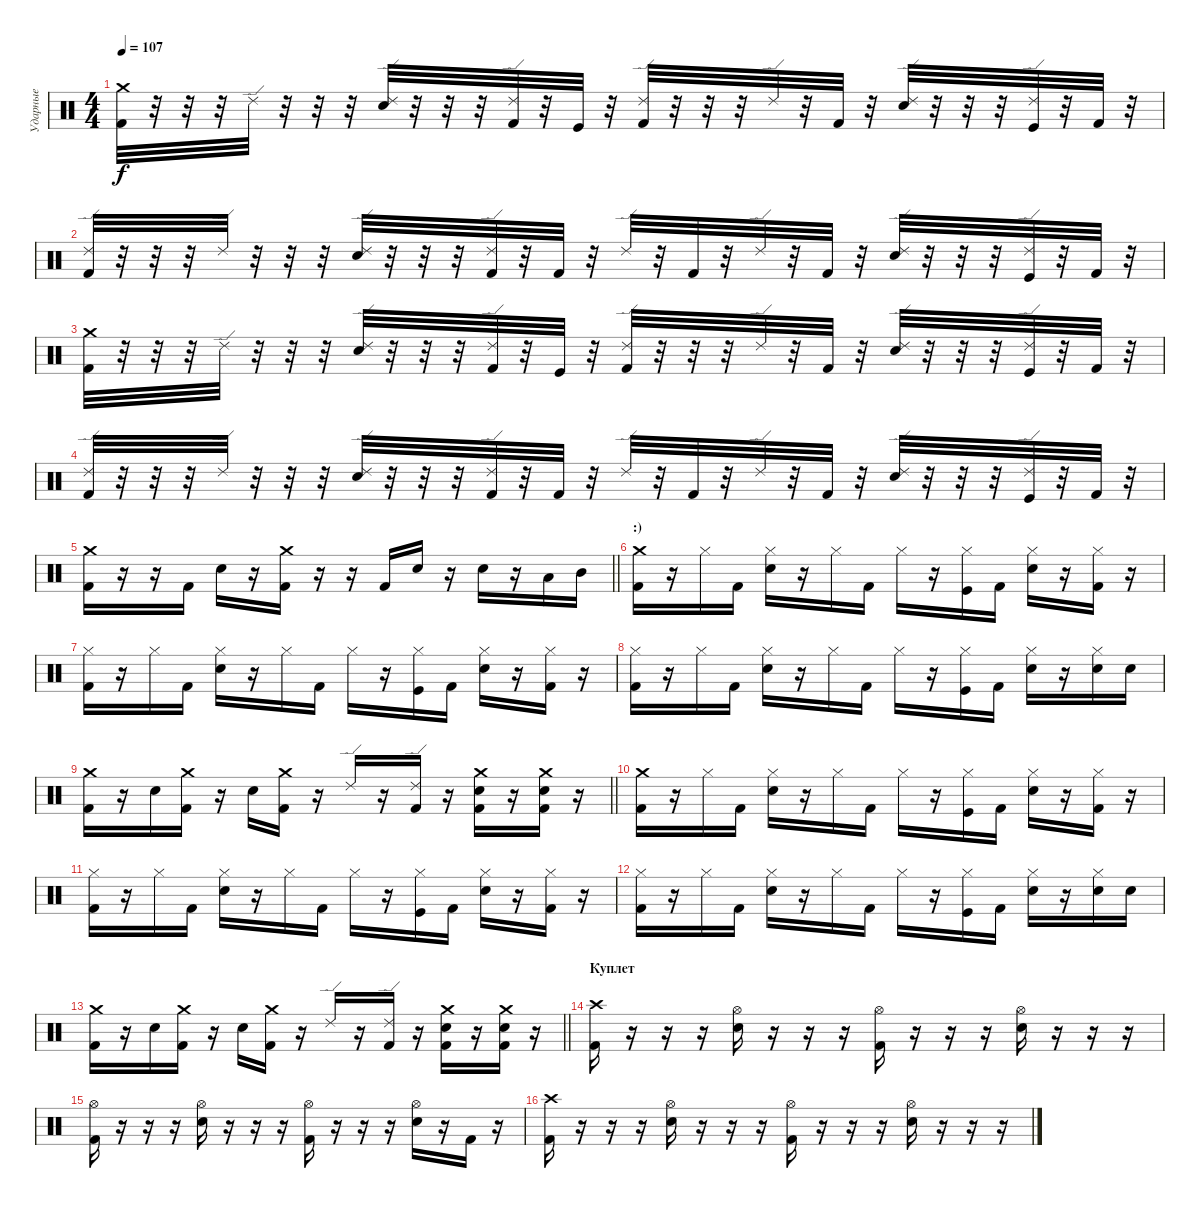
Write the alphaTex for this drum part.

\track ("Ударные" "Ударные") {instrument percussion}
\staff {score}
\articulation defaults
\ts (4 4)
\tempo 107
\clef neutral
\ks c
("Crash medium (hit)" "Kick (hit) 2").32{dy f} r.32 r.32 r.32 "Ride (edge) 2".32 r.32 r.32 r.32 ("Ride (edge) 2" "Electric Snare (hit)").32 r.32 r.32 r.32 ("Ride (edge) 2" "Kick (hit) 2").32 r.32 "Kick (hit)".32 r.32 ("Ride (edge) 2" "Kick (hit) 2").32 r.32 r.32 r.32 "Ride (edge) 2".32 r.32 "Kick (hit) 2".32 r.32 ("Ride (edge) 2" "Electric Snare (hit)").32 r.32 r.32 r.32 ("Ride (edge) 2" "Kick (hit)").32 r.32 "Kick (hit) 2".32 r.32 |
("Ride (edge) 2" "Kick (hit) 2").32 r.32 r.32 r.32 "Ride (edge) 2".32 r.32 r.32 r.32 ("Ride (edge) 2" "Electric Snare (hit)").32 r.32 r.32 r.32 ("Ride (edge) 2" "Kick (hit) 2").32 r.32 "Kick (hit) 2".32 r.32 "Ride (edge) 2".32 r.32 "Kick (hit) 2".32 r.32 "Ride (edge) 2".32 r.32 "Kick (hit) 2".32 r.32 ("Ride (edge) 2" "Electric Snare (hit)").32 r.32 r.32 r.32 ("Ride (edge) 2" "Kick (hit)").32 r.32 "Kick (hit) 2".32 r.32 |
("Crash medium (hit)" "Kick (hit) 2").32 r.32 r.32 r.32 "Ride (edge) 2".32 r.32 r.32 r.32 ("Ride (edge) 2" "Electric Snare (hit)").32 r.32 r.32 r.32 ("Ride (edge) 2" "Kick (hit) 2").32 r.32 "Kick (hit)".32 r.32 ("Ride (edge) 2" "Kick (hit) 2").32 r.32 r.32 r.32 "Ride (edge) 2".32 r.32 "Kick (hit) 2".32 r.32 ("Ride (edge) 2" "Electric Snare (hit)").32 r.32 r.32 r.32 ("Ride (edge) 2" "Kick (hit)").32 r.32 "Kick (hit) 2".32 r.32 |
("Ride (edge) 2" "Kick (hit) 2").32 r.32 r.32 r.32 "Ride (edge) 2".32 r.32 r.32 r.32 ("Ride (edge) 2" "Electric Snare (hit)").32 r.32 r.32 r.32 ("Ride (edge) 2" "Kick (hit) 2").32 r.32 "Kick (hit) 2".32 r.32 "Ride (edge) 2".32 r.32 "Kick (hit) 2".32 r.32 "Ride (edge) 2".32 r.32 "Kick (hit) 2".32 r.32 ("Ride (edge) 2" "Electric Snare (hit)").32 r.32 r.32 r.32 ("Ride (edge) 2" "Kick (hit)").32 r.32 "Kick (hit) 2".32 r.32 |
\barLineRight lightlight
("Crash medium (hit)" "Kick (hit) 2").16 r.16 r.16 "Kick (hit) 2".16 "Electric Snare (hit)".16 r.16 ("Crash medium (hit)" "Kick (hit) 2").16 r.16 r.16 "Kick (hit) 2".16 "Electric Snare (hit)".16 r.16 "Electric Snare (hit)".16 r.16 "Low Tom (hit)".16 "Mid Tom (hit)".16 |
\section ("" ":)")
("Crash medium (hit)" "Kick (hit) 2").16 r.16 "Hi-Hat (closed)".16 "Kick (hit) 2".16 ("Hi-Hat (closed)" "Electric Snare (hit)").16 r.16 "Hi-Hat (closed)".16 "Kick (hit) 2".16 "Hi-Hat (closed)".16 r.16 ("Hi-Hat (closed)" "Kick (hit)").16 "Kick (hit) 2".16 ("Hi-Hat (closed)" "Electric Snare (hit)").16 r.16 ("Hi-Hat (closed)" "Kick (hit) 2").16 r.16 |
("Hi-Hat (closed)" "Kick (hit) 2").16 r.16 "Hi-Hat (closed)".16 "Kick (hit) 2".16 ("Hi-Hat (closed)" "Electric Snare (hit)").16 r.16 "Hi-Hat (closed)".16 "Kick (hit) 2".16 "Hi-Hat (closed)".16 r.16 ("Hi-Hat (closed)" "Kick (hit)").16 "Kick (hit) 2".16 ("Hi-Hat (closed)" "Electric Snare (hit)").16 r.16 ("Hi-Hat (closed)" "Kick (hit) 2").16 r.16 |
("Hi-Hat (closed)" "Kick (hit) 2").16 r.16 "Hi-Hat (closed)".16 "Kick (hit) 2".16 ("Hi-Hat (closed)" "Electric Snare (hit)").16 r.16 "Hi-Hat (closed)".16 "Kick (hit) 2".16 "Hi-Hat (closed)".16 r.16 ("Hi-Hat (closed)" "Kick (hit)").16 "Kick (hit) 2".16 ("Hi-Hat (closed)" "Electric Snare (hit)").16 r.16 ("Hi-Hat (closed)" "Electric Snare (hit)").16 "Electric Snare (hit)".16 |
\barLineRight lightlight
("Crash medium (hit)" "Kick (hit) 2").16 r.16 "Electric Snare (hit)".16 ("Crash medium (hit)" "Kick (hit) 2").16 r.16 "Electric Snare (hit)".16 ("Crash medium (hit)" "Kick (hit) 2").16 r.16 "Ride (edge) 2".16 r.16 ("Ride (edge) 2" "Kick (hit) 2").16 r.16 ("Crash medium (hit)" "Electric Snare (hit)" "Kick (hit) 2").16 r.16 ("Crash medium (hit)" "Electric Snare (hit)" "Kick (hit) 2").16 r.16 |
("Crash medium (hit)" "Kick (hit) 2").16 r.16 "Hi-Hat (closed)".16 "Kick (hit) 2".16 ("Hi-Hat (closed)" "Electric Snare (hit)").16 r.16 "Hi-Hat (closed)".16 "Kick (hit) 2".16 "Hi-Hat (closed)".16 r.16 ("Hi-Hat (closed)" "Kick (hit)").16 "Kick (hit) 2".16 ("Hi-Hat (closed)" "Electric Snare (hit)").16 r.16 ("Hi-Hat (closed)" "Kick (hit) 2").16 r.16 |
("Hi-Hat (closed)" "Kick (hit) 2").16 r.16 "Hi-Hat (closed)".16 "Kick (hit) 2".16 ("Hi-Hat (closed)" "Electric Snare (hit)").16 r.16 "Hi-Hat (closed)".16 "Kick (hit) 2".16 "Hi-Hat (closed)".16 r.16 ("Hi-Hat (closed)" "Kick (hit)").16 "Kick (hit) 2".16 ("Hi-Hat (closed)" "Electric Snare (hit)").16 r.16 ("Hi-Hat (closed)" "Kick (hit) 2").16 r.16 |
("Hi-Hat (closed)" "Kick (hit) 2").16 r.16 "Hi-Hat (closed)".16 "Kick (hit) 2".16 ("Hi-Hat (closed)" "Electric Snare (hit)").16 r.16 "Hi-Hat (closed)".16 "Kick (hit) 2".16 "Hi-Hat (closed)".16 r.16 ("Hi-Hat (closed)" "Kick (hit)").16 "Kick (hit) 2".16 ("Hi-Hat (closed)" "Electric Snare (hit)").16 r.16 ("Hi-Hat (closed)" "Electric Snare (hit)").16 "Electric Snare (hit)".16 |
\barLineRight lightlight
("Crash medium (hit)" "Kick (hit) 2").16 r.16 "Electric Snare (hit)".16 ("Crash medium (hit)" "Kick (hit) 2").16 r.16 "Electric Snare (hit)".16 ("Crash medium (hit)" "Kick (hit) 2").16 r.16 "Ride (edge) 2".16 r.16 ("Ride (edge) 2" "Kick (hit) 2").16 r.16 ("Crash medium (hit)" "Electric Snare (hit)" "Kick (hit) 2").16 r.16 ("Crash medium (hit)" "Electric Snare (hit)" "Kick (hit) 2").16 r.16 |
\section ("" "Куплет")
("Crash high (hit)" "Kick (hit) 2").16 r.16 r.16 r.16 ("Hi-Hat (open)" "Electric Snare (hit)").16 r.16 r.16 r.16 ("Hi-Hat (open)" "Kick (hit) 2").16 r.16 r.16 r.16 ("Hi-Hat (open)" "Electric Snare (hit)").16 r.16 r.16 r.16 |
("Hi-Hat (open)" "Kick (hit) 2").16 r.16 r.16 r.16 ("Hi-Hat (open)" "Electric Snare (hit)").16 r.16 r.16 r.16 ("Hi-Hat (open)" "Kick (hit) 2").16 r.16 r.16 r.16 ("Hi-Hat (open)" "Electric Snare (hit)").16 r.16 "Kick (hit) 2".16 r.16 |
("Crash high (hit)" "Kick (hit) 2").16 r.16 r.16 r.16 ("Hi-Hat (open)" "Electric Snare (hit)").16 r.16 r.16 r.16 ("Hi-Hat (open)" "Kick (hit) 2").16 r.16 r.16 r.16 ("Hi-Hat (open)" "Electric Snare (hit)").16 r.16 r.16 r.16
